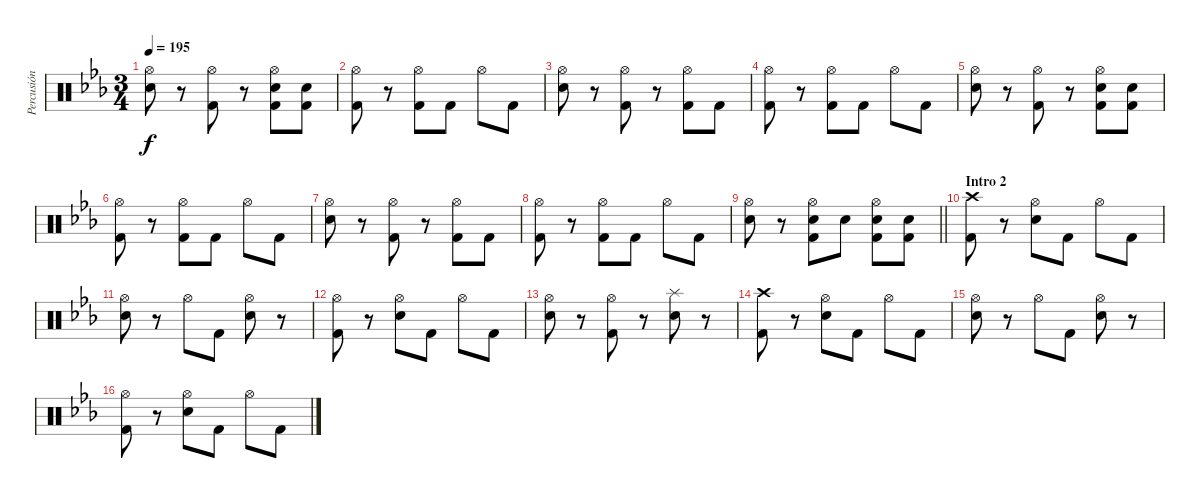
\track ("Percusión" "Percusión") {instrument percussion}
\staff {score}
\articulation defaults
\ts (3 4)
\tempo 195
\clef neutral
\ks eb
("Hi-Hat (open)" "Snare (hit) 2").8{dy f} r.8 ("Hi-Hat (open)" "Kick (hit) 2").8 r.8 ("Hi-Hat (open)" "Snare (hit) 2" "Kick (hit) 2").8 ("Snare (hit) 2" "Kick (hit) 2").8 |
("Hi-Hat (open)" "Kick (hit) 2").8 r.8 ("Hi-Hat (open)" "Kick (hit) 2").8 "Kick (hit) 2".8 "Hi-Hat (open)".8 "Kick (hit) 2".8 |
("Hi-Hat (open)" "Snare (hit) 2").8 r.8 ("Hi-Hat (open)" "Kick (hit) 2").8 r.8 ("Hi-Hat (open)" "Kick (hit) 2").8 "Kick (hit) 2".8 |
("Hi-Hat (open)" "Kick (hit) 2").8 r.8 ("Hi-Hat (open)" "Kick (hit) 2").8 "Kick (hit) 2".8 "Hi-Hat (open)".8 "Kick (hit) 2".8 |
("Hi-Hat (open)" "Snare (hit) 2").8 r.8 ("Hi-Hat (open)" "Kick (hit) 2").8 r.8 ("Hi-Hat (open)" "Snare (hit) 2" "Kick (hit) 2").8 ("Snare (hit) 2" "Kick (hit) 2").8 |
("Hi-Hat (open)" "Kick (hit) 2").8 r.8 ("Hi-Hat (open)" "Kick (hit) 2").8 "Kick (hit) 2".8 "Hi-Hat (open)".8 "Kick (hit) 2".8 |
("Hi-Hat (open)" "Snare (hit) 2").8 r.8 ("Hi-Hat (open)" "Kick (hit) 2").8 r.8 ("Hi-Hat (open)" "Kick (hit) 2").8 "Kick (hit) 2".8 |
("Hi-Hat (open)" "Kick (hit) 2").8 r.8 ("Hi-Hat (open)" "Kick (hit) 2").8 "Kick (hit) 2".8 "Hi-Hat (open)".8 "Kick (hit) 2".8 |
\barLineRight lightlight
("Hi-Hat (open)" "Snare (hit) 2").8 r.8 ("Hi-Hat (open)" "Snare (hit) 2" "Kick (hit) 2").8 "Snare (hit) 2".8 ("Hi-Hat (open)" "Snare (hit) 2" "Kick (hit) 2").8 ("Snare (hit) 2" "Kick (hit) 2").8 |
\section ("" "Intro 2")
("Crash high (hit)" "Kick (hit) 2").8 r.8 ("Hi-Hat (open)" "Snare (hit) 2").8 "Kick (hit) 2".8 "Hi-Hat (open)".8 "Kick (hit) 2".8 |
("Hi-Hat (open)" "Snare (hit) 2").8 r.8 "Hi-Hat (open)".8 "Kick (hit) 2".8 ("Hi-Hat (open)" "Snare (hit) 2").8 r.8 |
("Hi-Hat (open)" "Kick (hit) 2").8 r.8 ("Hi-Hat (open)" "Snare (hit) 2").8 "Kick (hit) 2".8 "Hi-Hat (open)".8 "Kick (hit) 2".8 |
("Hi-Hat (open)" "Snare (hit) 2").8 r.8 ("Hi-Hat (open)" "Kick (hit) 2").8 r.8 ("Splash (hit)" "Snare (hit) 2").8 r.8 |
("Crash high (hit)" "Kick (hit) 2").8 r.8 ("Hi-Hat (open)" "Snare (hit) 2").8 "Kick (hit) 2".8 "Hi-Hat (open)".8 "Kick (hit) 2".8 |
("Hi-Hat (open)" "Snare (hit) 2").8 r.8 "Hi-Hat (open)".8 "Kick (hit) 2".8 ("Hi-Hat (open)" "Snare (hit) 2").8 r.8 |
("Hi-Hat (open)" "Kick (hit) 2").8 r.8 ("Hi-Hat (open)" "Snare (hit) 2").8 "Kick (hit) 2".8 "Hi-Hat (open)".8 "Kick (hit) 2".8
